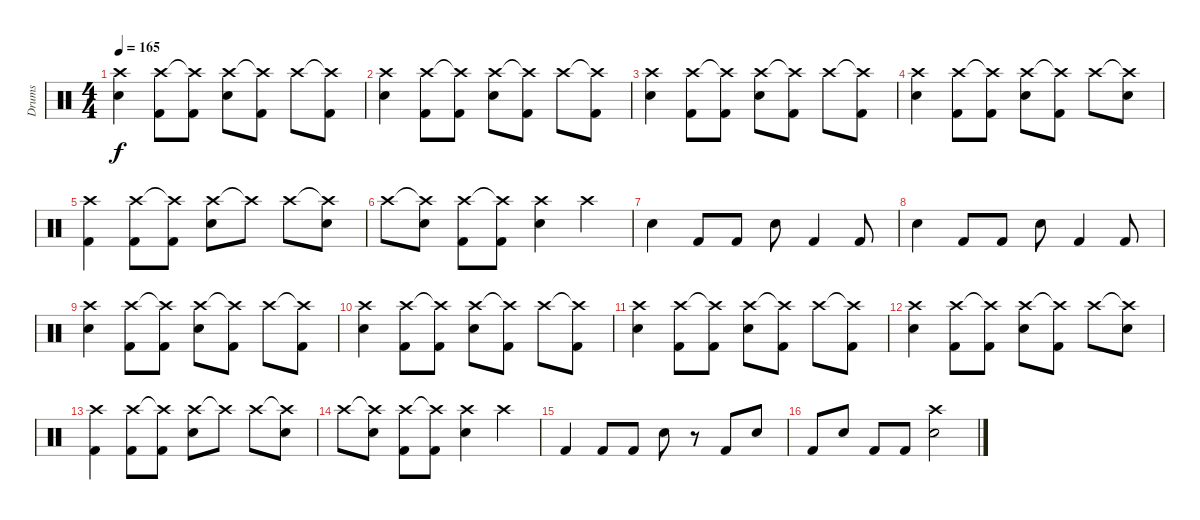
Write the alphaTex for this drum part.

\track ("Drums" "Drums") {instrument percussion}
\staff {score}
\articulation defaults
\ts (4 4)
\tempo 165
\clef neutral
\ks c
("Crash high (hit)" "Snare (hit) 2").4{dy f} ("Crash high (hit)" "Kick (hit) 2").8 ("Crash high (hit)"{t} "Kick (hit) 2").8 ("Crash high (hit)" "Snare (hit) 2").8 ("Crash high (hit)"{t} "Kick (hit) 2").8 "Crash high (hit)".8 ("Crash high (hit)"{t} "Kick (hit) 2").8 |
("Crash high (hit)" "Snare (hit) 2").4 ("Crash high (hit)" "Kick (hit) 2").8 ("Crash high (hit)"{t} "Kick (hit) 2").8 ("Crash high (hit)" "Snare (hit) 2").8 ("Crash high (hit)"{t} "Kick (hit) 2").8 "Crash high (hit)".8 ("Crash high (hit)"{t} "Kick (hit) 2").8 |
("Crash high (hit)" "Snare (hit) 2").4 ("Crash high (hit)" "Kick (hit) 2").8 ("Crash high (hit)"{t} "Kick (hit) 2").8 ("Crash high (hit)" "Snare (hit) 2").8 ("Crash high (hit)"{t} "Kick (hit) 2").8 "Crash high (hit)".8 ("Crash high (hit)"{t} "Kick (hit) 2").8 |
("Crash high (hit)" "Snare (hit) 2").4 ("Crash high (hit)" "Kick (hit) 2").8 ("Crash high (hit)"{t} "Kick (hit) 2").8 ("Crash high (hit)" "Snare (hit) 2").8 ("Crash high (hit)"{t} "Kick (hit) 2").8 "Crash high (hit)".8 ("Crash high (hit)"{t} "Snare (hit) 2").8 |
("Crash high (hit)" "Kick (hit) 2").4 ("Crash high (hit)" "Kick (hit) 2").8 ("Crash high (hit)"{t} "Kick (hit) 2").8 ("Crash high (hit)" "Snare (hit) 2").8 "Crash high (hit)"{t}.8 "Crash high (hit)".8 ("Crash high (hit)"{t} "Snare (hit) 2").8 |
"Crash high (hit)".8 ("Crash high (hit)"{t} "Snare (hit) 2").8 ("Crash high (hit)" "Kick (hit) 2").8 ("Crash high (hit)"{t} "Kick (hit) 2").8 ("Crash high (hit)" "Snare (hit) 2").4 "Crash high (hit)".4 |
"Snare (hit) 2".4 "Kick (hit) 2".8 "Kick (hit) 2".8 "Snare (hit) 2".8 "Kick (hit) 2".4 "Kick (hit) 2".8 |
"Snare (hit) 2".4 "Kick (hit) 2".8 "Kick (hit) 2".8 "Snare (hit) 2".8 "Kick (hit) 2".4 "Kick (hit) 2".8 |
("Crash high (hit)" "Snare (hit) 2").4 ("Crash high (hit)" "Kick (hit) 2").8 ("Crash high (hit)"{t} "Kick (hit) 2").8 ("Crash high (hit)" "Snare (hit) 2").8 ("Crash high (hit)"{t} "Kick (hit) 2").8 "Crash high (hit)".8 ("Crash high (hit)"{t} "Kick (hit) 2").8 |
("Crash high (hit)" "Snare (hit) 2").4 ("Crash high (hit)" "Kick (hit) 2").8 ("Crash high (hit)"{t} "Kick (hit) 2").8 ("Crash high (hit)" "Snare (hit) 2").8 ("Crash high (hit)"{t} "Kick (hit) 2").8 "Crash high (hit)".8 ("Crash high (hit)"{t} "Kick (hit) 2").8 |
("Crash high (hit)" "Snare (hit) 2").4 ("Crash high (hit)" "Kick (hit) 2").8 ("Crash high (hit)"{t} "Kick (hit) 2").8 ("Crash high (hit)" "Snare (hit) 2").8 ("Crash high (hit)"{t} "Kick (hit) 2").8 "Crash high (hit)".8 ("Crash high (hit)"{t} "Kick (hit) 2").8 |
("Crash high (hit)" "Snare (hit) 2").4 ("Crash high (hit)" "Kick (hit) 2").8 ("Crash high (hit)"{t} "Kick (hit) 2").8 ("Crash high (hit)" "Snare (hit) 2").8 ("Crash high (hit)"{t} "Kick (hit) 2").8 "Crash high (hit)".8 ("Crash high (hit)"{t} "Snare (hit) 2").8 |
("Crash high (hit)" "Kick (hit) 2").4 ("Crash high (hit)" "Kick (hit) 2").8 ("Crash high (hit)"{t} "Kick (hit) 2").8 ("Crash high (hit)" "Snare (hit) 2").8 "Crash high (hit)"{t}.8 "Crash high (hit)".8 ("Crash high (hit)"{t} "Snare (hit) 2").8 |
"Crash high (hit)".8 ("Crash high (hit)"{t} "Snare (hit) 2").8 ("Crash high (hit)" "Kick (hit) 2").8 ("Crash high (hit)"{t} "Kick (hit) 2").8 ("Crash high (hit)" "Snare (hit) 2").4 "Crash high (hit)".4 |
"Kick (hit) 2".4 "Kick (hit) 2".8 "Kick (hit) 2".8 "Snare (hit) 2".8 r.8 "Kick (hit) 2".8 "Snare (hit) 2".8 |
"Kick (hit) 2".8 "Snare (hit) 2".8 "Kick (hit) 2".8 "Kick (hit) 2".8 ("Crash high (hit)" "Snare (hit) 2").2
